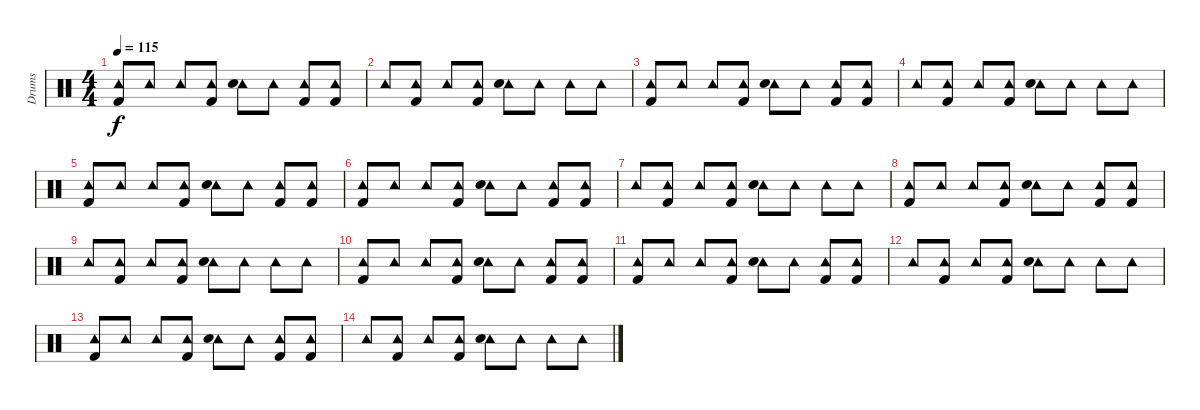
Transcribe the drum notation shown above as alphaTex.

\track ("Drums" "Drums") {instrument percussion}
\staff {score}
\articulation defaults
\ts (4 4)
\tempo 115
\clef neutral
\ks c
("Tambourine (hit)" "Kick (hit) 2").8{dy f} "Tambourine (hit)".8 "Tambourine (hit)".8 ("Tambourine (hit)" "Kick (hit) 2").8 ("Tambourine (hit)" "Snare (hit) 2").8 "Tambourine (hit)".8 ("Tambourine (hit)" "Kick (hit) 2").8 ("Tambourine (hit)" "Kick (hit) 2").8 |
"Tambourine (hit)".8 ("Tambourine (hit)" "Kick (hit) 2").8 "Tambourine (hit)".8 ("Tambourine (hit)" "Kick (hit) 2").8 ("Tambourine (hit)" "Snare (hit) 2").8 "Tambourine (hit)".8 "Tambourine (hit)".8 "Tambourine (hit)".8 |
("Tambourine (hit)" "Kick (hit) 2").8 "Tambourine (hit)".8 "Tambourine (hit)".8 ("Tambourine (hit)" "Kick (hit) 2").8 ("Tambourine (hit)" "Snare (hit) 2").8 "Tambourine (hit)".8 ("Tambourine (hit)" "Kick (hit) 2").8 ("Tambourine (hit)" "Kick (hit) 2").8 |
"Tambourine (hit)".8 ("Tambourine (hit)" "Kick (hit) 2").8 "Tambourine (hit)".8 ("Tambourine (hit)" "Kick (hit) 2").8 ("Tambourine (hit)" "Snare (hit) 2").8 "Tambourine (hit)".8 "Tambourine (hit)".8 "Tambourine (hit)".8 |
("Tambourine (hit)" "Kick (hit) 2").8 "Tambourine (hit)".8 "Tambourine (hit)".8 ("Tambourine (hit)" "Kick (hit) 2").8 ("Tambourine (hit)" "Snare (hit) 2").8 "Tambourine (hit)".8 ("Tambourine (hit)" "Kick (hit) 2").8 ("Tambourine (hit)" "Kick (hit) 2").8 |
("Tambourine (hit)" "Kick (hit) 2").8 "Tambourine (hit)".8 "Tambourine (hit)".8 ("Tambourine (hit)" "Kick (hit) 2").8 ("Tambourine (hit)" "Snare (hit) 2").8 "Tambourine (hit)".8 ("Tambourine (hit)" "Kick (hit) 2").8 ("Tambourine (hit)" "Kick (hit) 2").8 |
"Tambourine (hit)".8 ("Tambourine (hit)" "Kick (hit) 2").8 "Tambourine (hit)".8 ("Tambourine (hit)" "Kick (hit) 2").8 ("Tambourine (hit)" "Snare (hit) 2").8 "Tambourine (hit)".8 "Tambourine (hit)".8 "Tambourine (hit)".8 |
("Tambourine (hit)" "Kick (hit) 2").8 "Tambourine (hit)".8 "Tambourine (hit)".8 ("Tambourine (hit)" "Kick (hit) 2").8 ("Tambourine (hit)" "Snare (hit) 2").8 "Tambourine (hit)".8 ("Tambourine (hit)" "Kick (hit) 2").8 ("Tambourine (hit)" "Kick (hit) 2").8 |
"Tambourine (hit)".8 ("Tambourine (hit)" "Kick (hit) 2").8 "Tambourine (hit)".8 ("Tambourine (hit)" "Kick (hit) 2").8 ("Tambourine (hit)" "Snare (hit) 2").8 "Tambourine (hit)".8 "Tambourine (hit)".8 "Tambourine (hit)".8 |
("Tambourine (hit)" "Kick (hit) 2").8 "Tambourine (hit)".8 "Tambourine (hit)".8 ("Tambourine (hit)" "Kick (hit) 2").8 ("Tambourine (hit)" "Snare (hit) 2").8 "Tambourine (hit)".8 ("Tambourine (hit)" "Kick (hit) 2").8 ("Tambourine (hit)" "Kick (hit) 2").8 |
("Tambourine (hit)" "Kick (hit) 2").8 "Tambourine (hit)".8 "Tambourine (hit)".8 ("Tambourine (hit)" "Kick (hit) 2").8 ("Tambourine (hit)" "Snare (hit) 2").8 "Tambourine (hit)".8 ("Tambourine (hit)" "Kick (hit) 2").8 ("Tambourine (hit)" "Kick (hit) 2").8 |
"Tambourine (hit)".8 ("Tambourine (hit)" "Kick (hit) 2").8 "Tambourine (hit)".8 ("Tambourine (hit)" "Kick (hit) 2").8 ("Tambourine (hit)" "Snare (hit) 2").8 "Tambourine (hit)".8 "Tambourine (hit)".8 "Tambourine (hit)".8 |
("Tambourine (hit)" "Kick (hit) 2").8 "Tambourine (hit)".8 "Tambourine (hit)".8 ("Tambourine (hit)" "Kick (hit) 2").8 ("Tambourine (hit)" "Snare (hit) 2").8 "Tambourine (hit)".8 ("Tambourine (hit)" "Kick (hit) 2").8 ("Tambourine (hit)" "Kick (hit) 2").8 |
"Tambourine (hit)".8 ("Tambourine (hit)" "Kick (hit) 2").8 "Tambourine (hit)".8 ("Tambourine (hit)" "Kick (hit) 2").8 ("Tambourine (hit)" "Snare (hit) 2").8 "Tambourine (hit)".8 "Tambourine (hit)".8 "Tambourine (hit)".8
